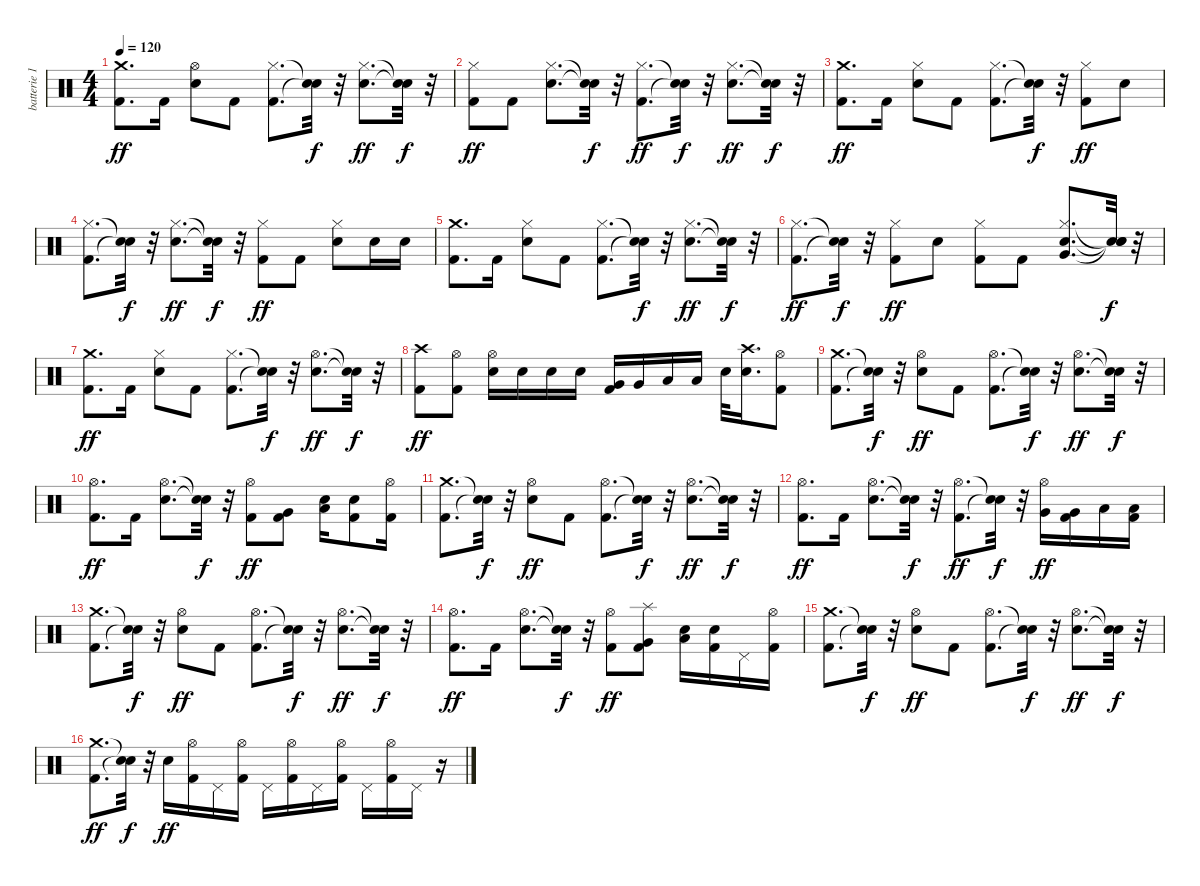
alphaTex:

\track ("batterie 1" "batterie 1") {instrument percussion}
\staff {score}
\articulation defaults
\ts (4 4)
\tempo 120
\clef neutral
\ks c
("Kick (hit) 2" "Crash medium (hit)").8{d dy ff} "Kick (hit) 2".16 ("Electric Snare (hit)" "Hi-Hat (open)").8 "Kick (hit) 2".8 ("Kick (hit) 2" "Hi-Hat (closed)").8{d} ("Snare (hit)"{t} "Snare (hit)"{t}).32{dy f} r.32 ("Electric Snare (hit)" "Hi-Hat (closed)").8{d dy ff} ("Snare (hit)"{t} "Snare (hit)"{t}).32{dy f} r.32 |
("Kick (hit) 2" "Hi-Hat (closed)").8{dy ff} "Kick (hit) 2".8 ("Electric Snare (hit)" "Hi-Hat (closed)").8{d} ("Snare (hit)"{t} "Snare (hit)"{t}).32{dy f} r.32 ("Kick (hit) 2" "Hi-Hat (closed)").8{d dy ff} ("Snare (hit)"{t} "Snare (hit)"{t}).32{dy f} r.32 ("Electric Snare (hit)" "Hi-Hat (closed)").8{d dy ff} ("Snare (hit)"{t} "Snare (hit)"{t}).32{dy f} r.32 |
("Kick (hit) 2" "Crash medium (hit)").8{d dy ff} "Kick (hit) 2".16 ("Electric Snare (hit)" "Hi-Hat (closed)").8 "Kick (hit) 2".8 ("Kick (hit) 2" "Hi-Hat (closed)").8{d} ("Snare (hit)"{t} "Snare (hit)"{t}).32{dy f} r.32 ("Kick (hit) 2" "Hi-Hat (closed)").8{dy ff} "Electric Snare (hit)".8 |
("Kick (hit) 2" "Hi-Hat (closed)").8{d} ("Snare (hit)"{t} "Snare (hit)"{t}).32{dy f} r.32 ("Electric Snare (hit)" "Hi-Hat (closed)").8{d dy ff} ("Snare (hit)"{t} "Snare (hit)"{t}).32{dy f} r.32 ("Kick (hit) 2" "Hi-Hat (closed)").8{dy ff} "Kick (hit) 2".8 ("Electric Snare (hit)" "Hi-Hat (closed)").8 "Electric Snare (hit)".16 "Electric Snare (hit)".16 |
("Kick (hit) 2" "Crash medium (hit)").8{d} "Kick (hit) 2".16 ("Electric Snare (hit)" "Hi-Hat (closed)").8 "Kick (hit) 2".8 ("Kick (hit) 2" "Hi-Hat (closed)").8{d} ("Snare (hit)"{t} "Snare (hit)"{t}).32{dy f} r.32 ("Electric Snare (hit)" "Hi-Hat (closed)").8{d dy ff} ("Snare (hit)"{t} "Snare (hit)"{t}).32{dy f} r.32 |
("Kick (hit) 2" "Hi-Hat (closed)").8{d dy ff} ("Snare (hit)"{t} "Snare (hit)"{t}).32{dy f} r.32 ("Kick (hit) 2" "Hi-Hat (closed)").8{dy ff} "Electric Snare (hit)".8 ("Kick (hit) 2" "Hi-Hat (closed)").8 "Kick (hit) 2".8 ("Electric Snare (hit)" "Hi-Hat (closed)" "Very Low Tom (hit)").8{d} ("Snare (hit)"{t} "Snare (hit)"{t} "Snare (hit)"{t}).32{dy f} r.32 |
("Kick (hit) 2" "Crash medium (hit)").8{d dy ff} "Kick (hit) 2".16 ("Electric Snare (hit)" "Hi-Hat (closed)").8 "Kick (hit) 2".8 ("Kick (hit) 2" "Hi-Hat (closed)").8{d} ("Snare (hit)"{t} "Snare (hit)"{t}).32{dy f} r.32 ("Electric Snare (hit)" "Hi-Hat (open)").8{d dy ff} ("Snare (hit)"{t} "Snare (hit)"{t}).32{dy f} r.32 |
("Kick (hit) 2" "Crash high (hit)").8{dy ff} ("Kick (hit) 2" "Hi-Hat (open)").8 ("Electric Snare (hit)" "Hi-Hat (open)").16 "Electric Snare (hit)".16 "Electric Snare (hit)".16 "Electric Snare (hit)".16 ("Kick (hit) 2" "Very Low Tom (hit)").16 "Very Low Tom (hit)".16 "Low Floor Tom (hit)".16 "Low Floor Tom (hit)".16 "Electric Snare (hit)".32 ("Electric Snare (hit)" "Crash high (hit)").16{d} ("Kick (hit) 2" "Hi-Hat (open)").8 |
("Kick (hit) 2" "Crash medium (hit)").8{d} ("Snare (hit)"{t} "Snare (hit)"{t}).32{dy f} r.32 ("Electric Snare (hit)" "Hi-Hat (open)").8{dy ff} "Kick (hit) 2".8 ("Kick (hit) 2" "Hi-Hat (open)").8{d} ("Snare (hit)"{t} "Snare (hit)"{t}).32{dy f} r.32 ("Electric Snare (hit)" "Hi-Hat (open)").8{d dy ff} ("Snare (hit)"{t} "Snare (hit)"{t}).32{dy f} r.32 |
("Kick (hit) 2" "Hi-Hat (open)").8{d dy ff} "Kick (hit) 2".16 ("Electric Snare (hit)" "Hi-Hat (open)").8{d} ("Snare (hit)"{t} "Snare (hit)"{t}).32{dy f} r.32 ("Kick (hit) 2" "Hi-Hat (open)").8{dy ff} ("Kick (hit) 2" "Very Low Tom (hit)").8 ("Electric Snare (hit)" "Low Floor Tom (hit)").16 ("Kick (hit) 2" "Electric Snare (hit)").8 ("Kick (hit) 2" "Hi-Hat (open)").16 |
("Kick (hit) 2" "Crash medium (hit)").8{d} ("Snare (hit)"{t} "Snare (hit)"{t}).32{dy f} r.32 ("Electric Snare (hit)" "Hi-Hat (open)").8{dy ff} "Kick (hit) 2".8 ("Kick (hit) 2" "Hi-Hat (open)").8{d} ("Snare (hit)"{t} "Snare (hit)"{t}).32{dy f} r.32 ("Electric Snare (hit)" "Hi-Hat (open)").8{d dy ff} ("Snare (hit)"{t} "Snare (hit)"{t}).32{dy f} r.32 |
("Kick (hit) 2" "Hi-Hat (open)").8{d dy ff} "Kick (hit) 2".16 ("Electric Snare (hit)" "Hi-Hat (open)").8{d} ("Snare (hit)"{t} "Snare (hit)"{t}).32{dy f} r.32 ("Kick (hit) 2" "Hi-Hat (open)").8{d dy ff} ("Snare (hit)"{t} "Snare (hit)"{t}).32{dy f} r.32 ("Very Low Tom (hit)" "Hi-Hat (open)").16{dy ff} ("Kick (hit) 2" "Very Low Tom (hit)").16 "Low Floor Tom (hit)".16 ("Kick (hit) 2" "Low Floor Tom (hit)").16 |
("Kick (hit) 2" "Crash medium (hit)").8{d} ("Snare (hit)"{t} "Snare (hit)"{t}).32{dy f} r.32 ("Electric Snare (hit)" "Hi-Hat (open)").8{dy ff} "Kick (hit) 2".8 ("Kick (hit) 2" "Hi-Hat (open)").8{d} ("Snare (hit)"{t} "Snare (hit)"{t}).32{dy f} r.32 ("Electric Snare (hit)" "Hi-Hat (open)").8{d dy ff} ("Snare (hit)"{t} "Snare (hit)"{t}).32{dy f} r.32 |
("Kick (hit) 2" "Hi-Hat (open)").8{d dy ff} "Kick (hit) 2".16 ("Electric Snare (hit)" "Hi-Hat (open)").8{d} ("Snare (hit)"{t} "Snare (hit)"{t}).32{dy f} r.32 ("Kick (hit) 2" "Hi-Hat (open)").8{dy ff} ("Kick (hit) 2" "Very Low Tom (hit)" "Splash (hit)").8 ("Electric Snare (hit)" "Low Floor Tom (hit)").16 ("Kick (hit) 2" "Electric Snare (hit)").16 "Pedal Hi-Hat (hit)".16 ("Kick (hit) 2" "Hi-Hat (open)").16 |
("Kick (hit) 2" "Crash medium (hit)").8{d} ("Snare (hit)"{t} "Snare (hit)"{t}).32{dy f} r.32 ("Electric Snare (hit)" "Hi-Hat (open)").8{dy ff} "Kick (hit) 2".8 ("Kick (hit) 2" "Hi-Hat (open)").8{d} ("Snare (hit)"{t} "Snare (hit)"{t}).32{dy f} r.32 ("Electric Snare (hit)" "Hi-Hat (open)").8{d dy ff} ("Snare (hit)"{t} "Snare (hit)"{t}).32{dy f} r.32 |
("Kick (hit) 2" "Crash medium (hit)").8{d dy ff} ("Snare (hit)"{t} "Snare (hit)"{t}).32{dy f} r.32 "Electric Snare (hit)".16{dy ff} ("Kick (hit) 2" "Hi-Hat (open)").16 "Pedal Hi-Hat (hit)".16 ("Kick (hit) 2" "Hi-Hat (open)").16 "Pedal Hi-Hat (hit)".16 ("Kick (hit) 2" "Hi-Hat (open)").16 "Pedal Hi-Hat (hit)".16 ("Kick (hit) 2" "Hi-Hat (open)").16 "Pedal Hi-Hat (hit)".16 ("Kick (hit) 2" "Hi-Hat (open)").16 "Pedal Hi-Hat (hit)".16 r.16
